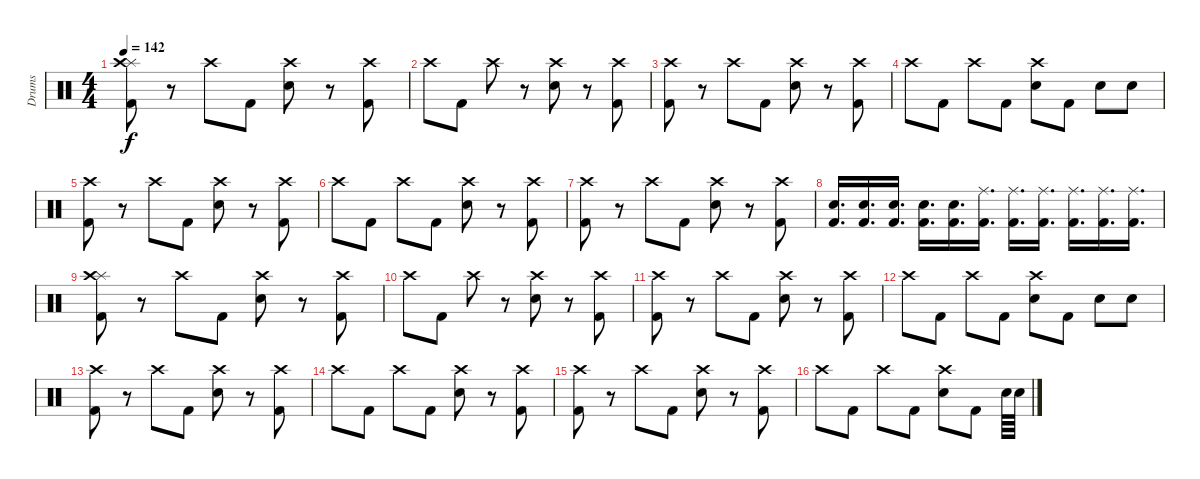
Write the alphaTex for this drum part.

\track ("Drums" "Drums") {instrument percussion}
\staff {score}
\articulation defaults
\ts (4 4)
\tempo 142
\clef neutral
\ks c
("Splash (hit)" "Crash high (hit)" "Kick (hit) 2").8{dy f} r.8 "Crash high (hit)".8 "Kick (hit) 2".8 ("Crash high (hit)" "Snare (hit) 2").8 r.8 ("Crash high (hit)" "Kick (hit) 2").8 |
"Crash high (hit)".8 "Kick (hit) 2".8 "Crash high (hit)".8 r.8 ("Crash high (hit)" "Snare (hit) 2").8 r.8 ("Crash high (hit)" "Kick (hit) 2").8 |
("Crash high (hit)" "Kick (hit) 2").8 r.8 "Crash high (hit)".8 "Kick (hit) 2".8 ("Crash high (hit)" "Snare (hit) 2").8 r.8 ("Crash high (hit)" "Kick (hit) 2").8 |
"Crash high (hit)".8 "Kick (hit) 2".8 "Crash high (hit)".8 "Kick (hit) 2".8 ("Crash high (hit)" "Snare (hit) 2").8 "Kick (hit) 2".8 "Snare (hit) 2".8 "Snare (hit) 2".8 |
("Crash high (hit)" "Kick (hit) 2").8 r.8 "Crash high (hit)".8 "Kick (hit) 2".8 ("Crash high (hit)" "Snare (hit) 2").8 r.8 ("Crash high (hit)" "Kick (hit) 2").8 |
"Crash high (hit)".8 "Kick (hit) 2".8 "Crash high (hit)".8 "Kick (hit) 2".8 ("Crash high (hit)" "Snare (hit) 2").8 r.8 ("Crash high (hit)" "Kick (hit) 2").8 |
("Crash high (hit)" "Kick (hit) 2").8 r.8 "Crash high (hit)".8 "Kick (hit) 2".8 ("Crash high (hit)" "Snare (hit) 2").8 r.8 ("Crash high (hit)" "Kick (hit) 2").8 |
("Snare (hit) 2" "Kick (hit) 2").16{d} ("Snare (hit) 2" "Kick (hit) 2").16{d} ("Snare (hit) 2" "Kick (hit) 2").16{d} ("Snare (hit) 2" "Kick (hit) 2").16{d} ("Snare (hit) 2" "Kick (hit) 2").16{d} ("Ride (middle)" "Kick (hit) 2").16{d} ("Ride (middle)" "Kick (hit) 2").16{d} ("Ride (middle)" "Kick (hit) 2").16{d} ("Ride (middle)" "Kick (hit) 2").16{d} ("Ride (middle)" "Kick (hit) 2").16{d} ("Ride (middle)" "Kick (hit) 2").16{d} |
("Splash (hit)" "Crash high (hit)" "Kick (hit) 2").8 r.8 "Crash high (hit)".8 "Kick (hit) 2".8 ("Crash high (hit)" "Snare (hit) 2").8 r.8 ("Crash high (hit)" "Kick (hit) 2").8 |
"Crash high (hit)".8 "Kick (hit) 2".8 "Crash high (hit)".8 r.8 ("Crash high (hit)" "Snare (hit) 2").8 r.8 ("Crash high (hit)" "Kick (hit) 2").8 |
("Crash high (hit)" "Kick (hit) 2").8 r.8 "Crash high (hit)".8 "Kick (hit) 2".8 ("Crash high (hit)" "Snare (hit) 2").8 r.8 ("Crash high (hit)" "Kick (hit) 2").8 |
"Crash high (hit)".8 "Kick (hit) 2".8 "Crash high (hit)".8 "Kick (hit) 2".8 ("Crash high (hit)" "Snare (hit) 2").8 "Kick (hit) 2".8 "Snare (hit) 2".8 "Snare (hit) 2".8 |
("Crash high (hit)" "Kick (hit) 2").8 r.8 "Crash high (hit)".8 "Kick (hit) 2".8 ("Crash high (hit)" "Snare (hit) 2").8 r.8 ("Crash high (hit)" "Kick (hit) 2").8 |
"Crash high (hit)".8 "Kick (hit) 2".8 "Crash high (hit)".8 "Kick (hit) 2".8 ("Crash high (hit)" "Snare (hit) 2").8 r.8 ("Crash high (hit)" "Kick (hit) 2").8 |
("Crash high (hit)" "Kick (hit) 2").8 r.8 "Crash high (hit)".8 "Kick (hit) 2".8 ("Crash high (hit)" "Snare (hit) 2").8 r.8 ("Crash high (hit)" "Kick (hit) 2").8 |
"Crash high (hit)".8 "Kick (hit) 2".8 "Crash high (hit)".8 "Kick (hit) 2".8 ("Crash high (hit)" "Snare (hit) 2").8 "Kick (hit) 2".8 "Snare (hit) 2".64 "Snare (hit) 2".64
